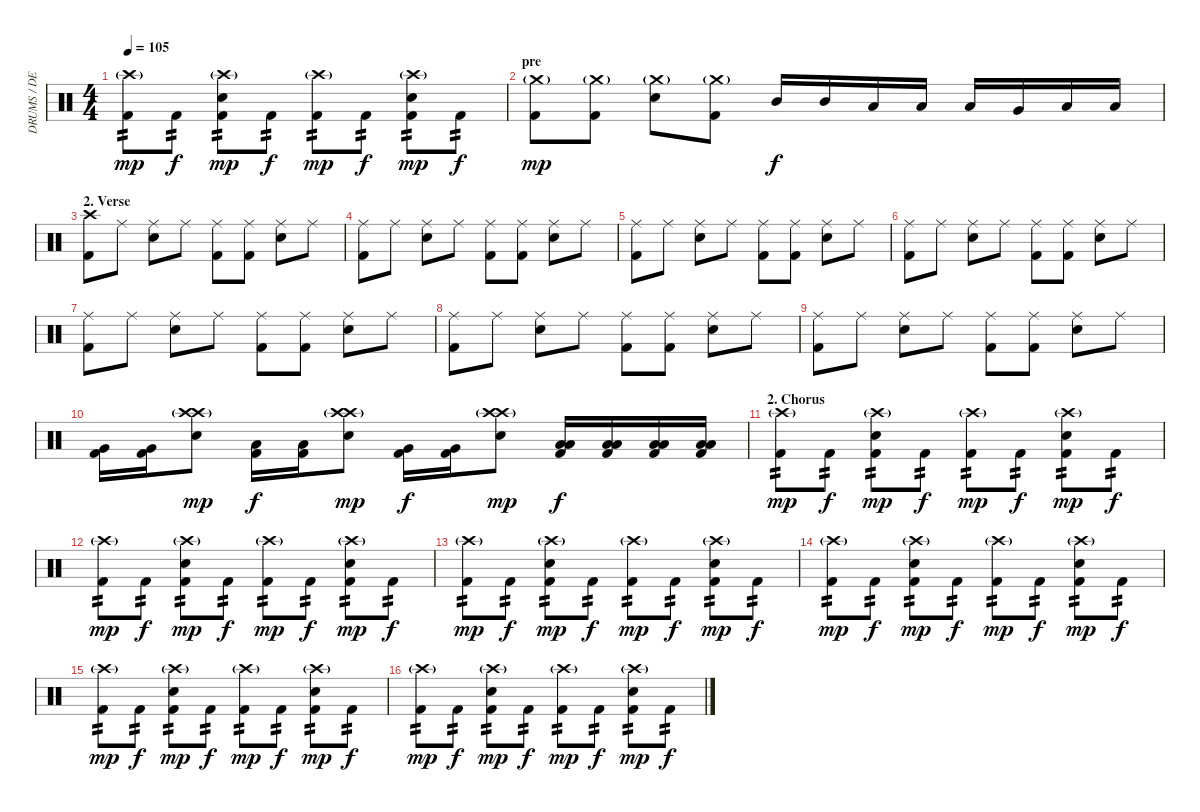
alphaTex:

\track ("DRUMS / DENNn!S" "DRUMS / DE") {instrument percussion}
\staff {score}
\articulation defaults
\ts (4 4)
\tempo 105
\clef neutral
\ks c
("Crash high (hit)"{g} "Kick (hit) 2").8{tp 2 dy mp} "Kick (hit) 2".8{tp 2 dy f} ("Crash high (hit)"{g} "Kick (hit) 2" "Electric Snare (hit)").8{tp 2 dy mp} "Kick (hit) 2".8{tp 2 dy f} ("Crash high (hit)"{g} "Kick (hit) 2").8{tp 2 dy mp} "Kick (hit) 2".8{tp 2 dy f} ("Crash high (hit)"{g} "Kick (hit) 2" "Electric Snare (hit)").8{tp 2 dy mp} "Kick (hit) 2".8{tp 2 dy f} |
\section ("" "pre")
("Crash medium (hit)"{g} "Kick (hit) 2").8{dy mp} ("Crash medium (hit)"{g} "Kick (hit) 2").8 ("Crash medium (hit)"{g} "Electric Snare (hit)").8 ("Crash medium (hit)"{g} "Kick (hit) 2").8 "Mid Tom (hit)".16{dy f} "Mid Tom (hit)".16 "Low Tom (hit)".16 "Low Tom (hit)".16 "Low Tom (hit)".16 "Very Low Tom (hit)".16 "Low Floor Tom (hit)".16 "Low Floor Tom (hit)".16 |
\section ("" "2. Verse")
("Crash high (hit)" "Kick (hit) 2").8 "Ride (middle)".8 ("Ride (middle)" "Electric Snare (hit)").8 "Ride (middle)".8 ("Ride (middle)" "Kick (hit) 2").8 ("Ride (middle)" "Kick (hit) 2").8 ("Ride (middle)" "Electric Snare (hit)").8 "Ride (middle)".8 |
("Ride (middle)" "Kick (hit) 2").8 "Ride (middle)".8 ("Ride (middle)" "Electric Snare (hit)").8 "Ride (middle)".8 ("Ride (middle)" "Kick (hit) 2").8 ("Ride (middle)" "Kick (hit) 2").8 ("Ride (middle)" "Electric Snare (hit)").8 "Ride (middle)".8 |
("Ride (middle)" "Kick (hit) 2").8 "Ride (middle)".8 ("Ride (middle)" "Electric Snare (hit)").8 "Ride (middle)".8 ("Ride (middle)" "Kick (hit) 2").8 ("Ride (middle)" "Kick (hit) 2").8 ("Ride (middle)" "Electric Snare (hit)").8 "Ride (middle)".8 |
("Ride (middle)" "Kick (hit) 2").8 "Ride (middle)".8 ("Ride (middle)" "Electric Snare (hit)").8 "Ride (middle)".8 ("Ride (middle)" "Kick (hit) 2").8 ("Ride (middle)" "Kick (hit) 2").8 ("Ride (middle)" "Electric Snare (hit)").8 "Ride (middle)".8 |
("Ride (middle)" "Kick (hit) 2").8 "Ride (middle)".8 ("Ride (middle)" "Electric Snare (hit)").8 "Ride (middle)".8 ("Ride (middle)" "Kick (hit) 2").8 ("Ride (middle)" "Kick (hit) 2").8 ("Ride (middle)" "Electric Snare (hit)").8 "Ride (middle)".8 |
("Ride (middle)" "Kick (hit) 2").8 "Ride (middle)".8 ("Ride (middle)" "Electric Snare (hit)").8 "Ride (middle)".8 ("Ride (middle)" "Kick (hit) 2").8 ("Ride (middle)" "Kick (hit) 2").8 ("Ride (middle)" "Electric Snare (hit)").8 "Ride (middle)".8 |
("Ride (middle)" "Kick (hit) 2").8 "Ride (middle)".8 ("Ride (middle)" "Electric Snare (hit)").8 "Ride (middle)".8 ("Ride (middle)" "Kick (hit) 2").8 ("Ride (middle)" "Kick (hit) 2").8 ("Ride (middle)" "Electric Snare (hit)").8 "Ride (middle)".8 |
("Very Low Tom (hit)" "Kick (hit) 2").16 ("Very Low Tom (hit)" "Kick (hit) 2").16 ("Crash high (hit)"{g} "Crash high (hit)"{g} "Electric Snare (hit)").8{dy mp} ("Low Tom (hit)" "Kick (hit) 2").16{dy f} ("Low Tom (hit)" "Kick (hit) 2").16 ("Crash high (hit)"{g} "Crash high (hit)"{g} "Electric Snare (hit)").8{dy mp} ("Very Low Tom (hit)" "Kick (hit) 2").16{dy f} ("Very Low Tom (hit)" "Kick (hit) 2").16 ("Crash high (hit)"{g} "Crash high (hit)"{g} "Electric Snare (hit)").8{dy mp} ("Low Tom (hit)" "Low Floor Tom (hit)" "Kick (hit) 2").16{dy f} ("Low Tom (hit)" "Low Floor Tom (hit)" "Kick (hit) 2").16 ("Low Tom (hit)" "Low Floor Tom (hit)" "Kick (hit) 2").16 ("Low Tom (hit)" "Low Floor Tom (hit)" "Kick (hit) 2").16 |
\section ("" "2. Chorus")
("Crash high (hit)"{g} "Kick (hit) 2").8{tp 2 dy mp} "Kick (hit) 2".8{tp 2 dy f} ("Crash high (hit)"{g} "Kick (hit) 2" "Electric Snare (hit)").8{tp 2 dy mp} "Kick (hit) 2".8{tp 2 dy f} ("Crash high (hit)"{g} "Kick (hit) 2").8{tp 2 dy mp} "Kick (hit) 2".8{tp 2 dy f} ("Crash high (hit)"{g} "Kick (hit) 2" "Electric Snare (hit)").8{tp 2 dy mp} "Kick (hit) 2".8{tp 2 dy f} |
("Crash high (hit)"{g} "Kick (hit) 2").8{tp 2 dy mp} "Kick (hit) 2".8{tp 2 dy f} ("Crash high (hit)"{g} "Kick (hit) 2" "Electric Snare (hit)").8{tp 2 dy mp} "Kick (hit) 2".8{tp 2 dy f} ("Crash high (hit)"{g} "Kick (hit) 2").8{tp 2 dy mp} "Kick (hit) 2".8{tp 2 dy f} ("Crash high (hit)"{g} "Kick (hit) 2" "Electric Snare (hit)").8{tp 2 dy mp} "Kick (hit) 2".8{tp 2 dy f} |
("Crash high (hit)"{g} "Kick (hit) 2").8{tp 2 dy mp} "Kick (hit) 2".8{tp 2 dy f} ("Crash high (hit)"{g} "Kick (hit) 2" "Electric Snare (hit)").8{tp 2 dy mp} "Kick (hit) 2".8{tp 2 dy f} ("Crash high (hit)"{g} "Kick (hit) 2").8{tp 2 dy mp} "Kick (hit) 2".8{tp 2 dy f} ("Crash high (hit)"{g} "Kick (hit) 2" "Electric Snare (hit)").8{tp 2 dy mp} "Kick (hit) 2".8{tp 2 dy f} |
("Crash high (hit)"{g} "Kick (hit) 2").8{tp 2 dy mp} "Kick (hit) 2".8{tp 2 dy f} ("Crash high (hit)"{g} "Kick (hit) 2" "Electric Snare (hit)").8{tp 2 dy mp} "Kick (hit) 2".8{tp 2 dy f} ("Crash high (hit)"{g} "Kick (hit) 2").8{tp 2 dy mp} "Kick (hit) 2".8{tp 2 dy f} ("Crash high (hit)"{g} "Kick (hit) 2" "Electric Snare (hit)").8{tp 2 dy mp} "Kick (hit) 2".8{tp 2 dy f} |
("Crash high (hit)"{g} "Kick (hit) 2").8{tp 2 dy mp} "Kick (hit) 2".8{tp 2 dy f} ("Crash high (hit)"{g} "Kick (hit) 2" "Electric Snare (hit)").8{tp 2 dy mp} "Kick (hit) 2".8{tp 2 dy f} ("Crash high (hit)"{g} "Kick (hit) 2").8{tp 2 dy mp} "Kick (hit) 2".8{tp 2 dy f} ("Crash high (hit)"{g} "Kick (hit) 2" "Electric Snare (hit)").8{tp 2 dy mp} "Kick (hit) 2".8{tp 2 dy f} |
("Crash high (hit)"{g} "Kick (hit) 2").8{tp 2 dy mp} "Kick (hit) 2".8{tp 2 dy f} ("Crash high (hit)"{g} "Kick (hit) 2" "Electric Snare (hit)").8{tp 2 dy mp} "Kick (hit) 2".8{tp 2 dy f} ("Crash high (hit)"{g} "Kick (hit) 2").8{tp 2 dy mp} "Kick (hit) 2".8{tp 2 dy f} ("Crash high (hit)"{g} "Kick (hit) 2" "Electric Snare (hit)").8{tp 2 dy mp} "Kick (hit) 2".8{tp 2 dy f}
